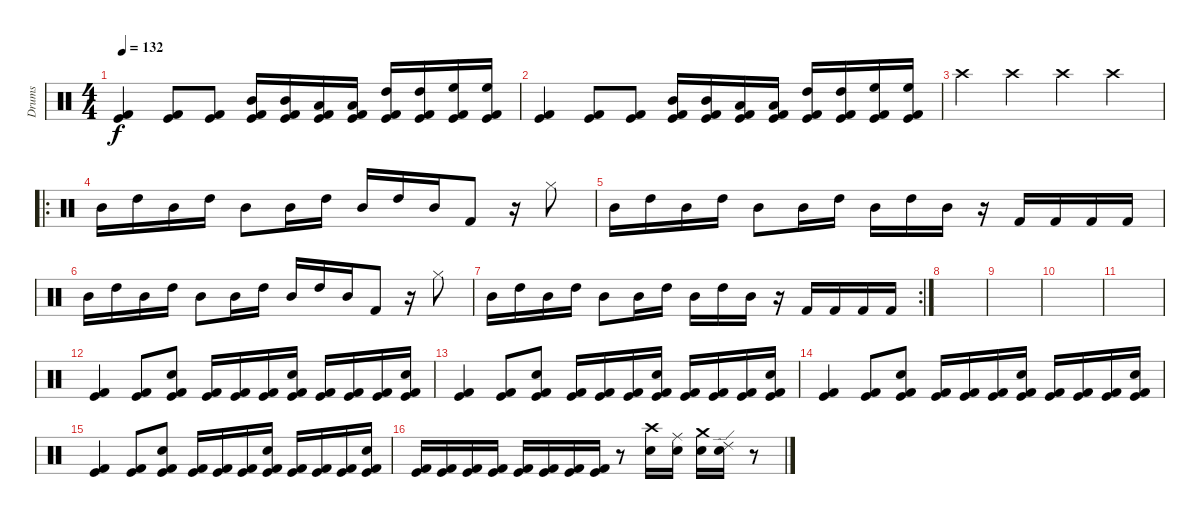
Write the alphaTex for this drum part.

\track ("Drums" "Drums") {instrument percussion}
\staff {score}
\articulation defaults
\ts (4 4)
\tempo 132
\clef neutral
\ks c
("Kick (hit)" "Kick (hit) 2").4{dy f} ("Kick (hit)" "Kick (hit) 2").8 ("Kick (hit)" "Kick (hit) 2").8 ("Kick (hit)" "Kick (hit) 2" "Mid Tom (hit)").16 ("Kick (hit)" "Kick (hit) 2" "Mid Tom (hit)").16 ("Kick (hit)" "Kick (hit) 2" "Low Tom (hit)").16 ("Kick (hit)" "Kick (hit) 2" "Low Tom (hit)").16 ("Kick (hit)" "Kick (hit) 2" "High Tom (hit)").16 ("Kick (hit)" "Kick (hit) 2" "High Tom (hit)").16 ("Kick (hit)" "Kick (hit) 2" "High Floor Tom (hit)").16 ("Kick (hit)" "Kick (hit) 2" "High Floor Tom (hit)").16 |
("Kick (hit)" "Kick (hit) 2").4 ("Kick (hit)" "Kick (hit) 2").8 ("Kick (hit)" "Kick (hit) 2").8 ("Kick (hit)" "Kick (hit) 2" "Mid Tom (hit)").16 ("Kick (hit)" "Kick (hit) 2" "Mid Tom (hit)").16 ("Kick (hit)" "Kick (hit) 2" "Low Tom (hit)").16 ("Kick (hit)" "Kick (hit) 2" "Low Tom (hit)").16 ("Kick (hit)" "Kick (hit) 2" "High Tom (hit)").16 ("Kick (hit)" "Kick (hit) 2" "High Tom (hit)").16 ("Kick (hit)" "Kick (hit) 2" "High Floor Tom (hit)").16 ("Kick (hit)" "Kick (hit) 2" "High Floor Tom (hit)").16 |
"Crash high (hit)".4 "Crash high (hit)".4 "Crash high (hit)".4 "Crash high (hit)".4 |
\ro "Mid Tom (hit)".16 "High Tom (hit)".16 "Mid Tom (hit)".16 "High Tom (hit)".16 "Mid Tom (hit)".8 "Mid Tom (hit)".16 "High Tom (hit)".16 "Mid Tom (hit)".16 "High Tom (hit)".16 "Mid Tom (hit)".16 "Kick (hit) 2".8
r.16 "Hi-Hat (closed)".8 |
"Mid Tom (hit)".16 "High Tom (hit)".16 "Mid Tom (hit)".16 "High Tom (hit)".16 "Mid Tom (hit)".8 "Mid Tom (hit)".16 "High Tom (hit)".16 "Mid Tom (hit)".16 "High Tom (hit)".16 "Mid Tom (hit)".16 r.16 "Kick (hit) 2".16 "Kick (hit) 2".16 "Kick (hit) 2".16 "Kick (hit) 2".16 |
"Mid Tom (hit)".16 "High Tom (hit)".16 "Mid Tom (hit)".16 "High Tom (hit)".16 "Mid Tom (hit)".8 "Mid Tom (hit)".16 "High Tom (hit)".16 "Mid Tom (hit)".16 "High Tom (hit)".16 "Mid Tom (hit)".16 "Kick (hit) 2".8 r.16 "Hi-Hat (closed)".8 |
\rc 2 "Mid Tom (hit)".16 "High Tom (hit)".16 "Mid Tom (hit)".16 "High Tom (hit)".16 "Mid Tom (hit)".8 "Mid Tom (hit)".16 "High Tom (hit)".16 "Mid Tom (hit)".16 "High Tom (hit)".16 "Mid Tom (hit)".16
r.16 "Kick (hit) 2".16 "Kick (hit) 2".16 "Kick (hit) 2".16 "Kick (hit) 2".16 |
|
|
|
|
("Kick (hit)" "Kick (hit) 2").4 ("Kick (hit)" "Kick (hit) 2").8 ("Kick (hit)" "Kick (hit) 2" "Electric Snare (hit)").8 ("Kick (hit)" "Kick (hit) 2").16 ("Kick (hit)" "Kick (hit) 2").16 ("Kick (hit)" "Kick (hit) 2").16 ("Kick (hit)" "Kick (hit) 2" "Electric Snare (hit)").16 ("Kick (hit)" "Kick (hit) 2").16 ("Kick (hit)" "Kick (hit) 2").16 ("Kick (hit)" "Kick (hit) 2").16 ("Kick (hit)" "Kick (hit) 2" "Electric Snare (hit)").16 |
("Kick (hit)" "Kick (hit) 2").4 ("Kick (hit)" "Kick (hit) 2").8 ("Kick (hit)" "Kick (hit) 2" "Electric Snare (hit)").8 ("Kick (hit)" "Kick (hit) 2").16 ("Kick (hit)" "Kick (hit) 2").16 ("Kick (hit)" "Kick (hit) 2").16 ("Kick (hit)" "Kick (hit) 2" "Electric Snare (hit)").16 ("Kick (hit)" "Kick (hit) 2").16 ("Kick (hit)" "Kick (hit) 2").16 ("Kick (hit)" "Kick (hit) 2").16 ("Kick (hit)" "Kick (hit) 2" "Electric Snare (hit)").16 |
("Kick (hit)" "Kick (hit) 2").4 ("Kick (hit)" "Kick (hit) 2").8 ("Kick (hit)" "Kick (hit) 2" "Electric Snare (hit)").8 ("Kick (hit)" "Kick (hit) 2").16 ("Kick (hit)" "Kick (hit) 2").16 ("Kick (hit)" "Kick (hit) 2").16 ("Kick (hit)" "Kick (hit) 2" "Electric Snare (hit)").16 ("Kick (hit)" "Kick (hit) 2").16 ("Kick (hit)" "Kick (hit) 2").16 ("Kick (hit)" "Kick (hit) 2").16 ("Kick (hit)" "Kick (hit) 2" "Electric Snare (hit)").16 |
("Kick (hit)" "Kick (hit) 2").4 ("Kick (hit)" "Kick (hit) 2").8 ("Kick (hit)" "Kick (hit) 2" "Electric Snare (hit)").8 ("Kick (hit)" "Kick (hit) 2").16 ("Kick (hit)" "Kick (hit) 2").16 ("Kick (hit)" "Kick (hit) 2").16 ("Kick (hit)" "Kick (hit) 2" "Electric Snare (hit)").16 ("Kick (hit)" "Kick (hit) 2").16 ("Kick (hit)" "Kick (hit) 2").16 ("Kick (hit)" "Kick (hit) 2").16 ("Kick (hit)" "Kick (hit) 2" "Electric Snare (hit)").16 |
("Kick (hit)" "Kick (hit) 2").16 ("Kick (hit)" "Kick (hit) 2").16 ("Kick (hit)" "Kick (hit) 2").16 ("Kick (hit)" "Kick (hit) 2").16 ("Kick (hit)" "Kick (hit) 2").16 ("Kick (hit)" "Kick (hit) 2").16 ("Kick (hit)" "Kick (hit) 2").16 ("Kick (hit)" "Kick (hit) 2").16 r.8 ("Snare (hit) 2" "Crash high (hit)").16 ("Ride (middle)" "Snare (hit) 2").16 ("Snare (hit) 2" "Crash medium (hit)").16 ("Ride (edge) 2" "Snare (hit) 2").16 r.8
